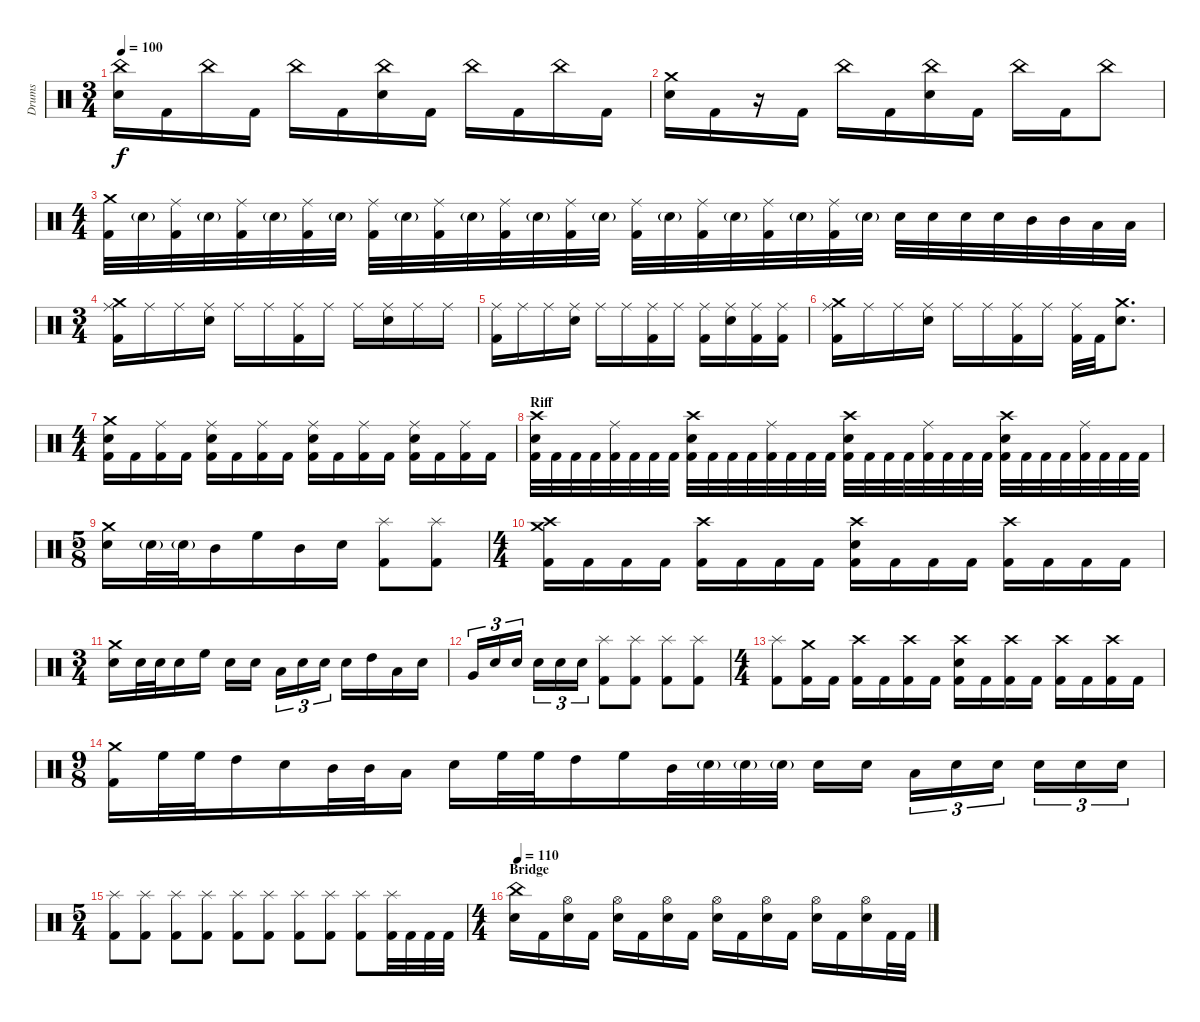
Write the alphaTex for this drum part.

\track ("Drums" "Drums") {instrument percussion}
\staff {score}
\articulation defaults
\ts (3 4)
\tempo 100
\clef neutral
\ks c
("China (hit)" "Snare (hit) 2").16{dy f} "Kick (hit) 2".16 "China (hit)".16 "Kick (hit) 2".16 "China (hit)".16 "Kick (hit) 2".16 ("China (hit)" "Snare (hit) 2").16 "Kick (hit) 2".16 "China (hit)".16 "Kick (hit) 2".16 "China (hit)".16 "Kick (hit) 2".16 |
("Crash medium (hit)" "Snare (hit) 2").16 "Kick (hit) 2".16 r.16 "Kick (hit) 2".16 "China (hit)".16 "Kick (hit) 2".16 ("China (hit)" "Snare (hit) 2").16 "Kick (hit) 2".16 "China (hit)".16 "Kick (hit) 2".16 "China (hit)".8 |
\ts (4 4)
("Crash medium (hit)" "Kick (hit) 2").32 "Snare (hit) 2"{g}.32 ("Ride (middle)" "Kick (hit) 2").32 "Snare (hit) 2"{g}.32 ("Ride (middle)" "Kick (hit) 2").32 "Snare (hit) 2"{g}.32 ("Ride (middle)" "Kick (hit) 2").32 "Snare (hit) 2"{g}.32 ("Ride (middle)" "Kick (hit) 2").32 "Snare (hit) 2"{g}.32 ("Ride (middle)" "Kick (hit) 2").32 "Snare (hit) 2"{g}.32 ("Ride (middle)" "Kick (hit) 2").32 "Snare (hit) 2"{g}.32 ("Ride (middle)" "Kick (hit) 2").32 "Snare (hit) 2"{g}.32 ("Ride (middle)" "Kick (hit) 2").32 "Snare (hit) 2"{g}.32 ("Ride (middle)" "Kick (hit) 2").32 "Snare (hit) 2"{g}.32 ("Ride (middle)" "Kick (hit) 2").32 "Snare (hit) 2"{g}.32 ("Ride (middle)" "Kick (hit) 2").32 "Snare (hit) 2"{g}.32 "Snare (hit) 2".32 "Snare (hit) 2".32 "Snare (hit) 2".32 "Snare (hit) 2".32 "Mid Tom (hit)".32 "Mid Tom (hit)".32 "Low Tom (hit)".32 "Low Tom (hit)".32 |
\ts (3 4)
("Crash medium (hit)" "Ride (middle)" "Kick (hit) 2").16 "Ride (middle)".16 "Ride (middle)".16 ("Ride (middle)" "Snare (hit) 2").16 "Ride (middle)".16 "Ride (middle)".16 ("Ride (middle)" "Kick (hit) 2").16 "Ride (middle)".16 "Ride (middle)".16 ("Ride (middle)" "Snare (hit) 2").16 "Ride (middle)".16 "Ride (middle)".16 |
("Ride (middle)" "Kick (hit) 2").16 "Ride (middle)".16 "Ride (middle)".16 ("Ride (middle)" "Snare (hit) 2").16 "Ride (middle)".16 "Ride (middle)".16 ("Ride (middle)" "Kick (hit) 2").16 "Ride (middle)".16 ("Ride (middle)" "Kick (hit) 2").16 ("Ride (middle)" "Snare (hit) 2").16 ("Ride (middle)" "Kick (hit) 2").16 ("Ride (middle)" "Kick (hit) 2").16 |
("Crash medium (hit)" "Ride (middle)" "Kick (hit) 2").16 "Ride (middle)".16 "Ride (middle)".16 ("Ride (middle)" "Snare (hit) 2").16 "Ride (middle)".16 "Ride (middle)".16 ("Ride (middle)" "Kick (hit) 2").16 "Ride (middle)".16 ("Ride (middle)" "Kick (hit) 2").32 "Kick (hit) 2".32 ("Crash medium (hit)" "Snare (hit) 2").8{d} |
\ts (4 4)
("Crash medium (hit)" "Snare (hit) 2" "Kick (hit) 2").16 "Kick (hit) 2".16 ("Ride (middle)" "Kick (hit) 2").16 "Kick (hit) 2".16 ("Ride (middle)" "Snare (hit) 2" "Kick (hit) 2").16 "Kick (hit) 2".16 ("Ride (middle)" "Kick (hit) 2").16 "Kick (hit) 2".16 ("Ride (middle)" "Snare (hit) 2" "Kick (hit) 2").16 "Kick (hit) 2".16 ("Ride (middle)" "Kick (hit) 2").16 "Kick (hit) 2".16 ("Ride (middle)" "Snare (hit) 2" "Kick (hit) 2").16 "Kick (hit) 2".16 ("Ride (middle)" "Kick (hit) 2").16 "Kick (hit) 2".16 |
\section ("" "Riff")
("Crash high (hit)" "Snare (hit) 2" "Kick (hit) 2").32 "Kick (hit) 2".32 "Kick (hit) 2".32 "Kick (hit) 2".32 ("Ride (middle)" "Kick (hit) 2").32 "Kick (hit) 2".32 "Kick (hit) 2".32 "Kick (hit) 2".32 ("Crash high (hit)" "Snare (hit) 2" "Kick (hit) 2").32 "Kick (hit) 2".32 "Kick (hit) 2".32 "Kick (hit) 2".32 ("Ride (middle)" "Kick (hit) 2").32 "Kick (hit) 2".32 "Kick (hit) 2".32 "Kick (hit) 2".32 ("Crash high (hit)" "Snare (hit) 2" "Kick (hit) 2").32 "Kick (hit) 2".32 "Kick (hit) 2".32 "Kick (hit) 2".32 ("Ride (middle)" "Kick (hit) 2").32 "Kick (hit) 2".32 "Kick (hit) 2".32 "Kick (hit) 2".32 ("Crash high (hit)" "Snare (hit) 2" "Kick (hit) 2").32 "Kick (hit) 2".32 "Kick (hit) 2".32 "Kick (hit) 2".32 ("Ride (middle)" "Kick (hit) 2").32 "Kick (hit) 2".32 "Kick (hit) 2".32 "Kick (hit) 2".32 |
\ts (5 8)
("Crash medium (hit)" "Snare (hit) 2").16 "Snare (hit) 2"{g}.32 "Snare (hit) 2"{g}.32 "Mid Tom (hit)".16 "High Floor Tom (hit)".16 "Mid Tom (hit)".16 "Snare (hit) 2".16 ("Splash (hit)" "Kick (hit) 2").8 ("Splash (hit)" "Kick (hit) 2").8 |
\ts (4 4)
("Crash high (hit)" "Crash medium (hit)" "Kick (hit) 2").16 "Kick (hit) 2".16 "Kick (hit) 2".16 "Kick (hit) 2".16 ("Crash high (hit)" "Kick (hit) 2").16 "Kick (hit) 2".16 "Kick (hit) 2".16 "Kick (hit) 2".16 ("Crash high (hit)" "Snare (hit) 2" "Kick (hit) 2").16 "Kick (hit) 2".16 "Kick (hit) 2".16 "Kick (hit) 2".16 ("Crash high (hit)" "Kick (hit) 2").16 "Kick (hit) 2".16 "Kick (hit) 2".16 "Kick (hit) 2".16 |
\ts (3 4)
("Crash medium (hit)" "Snare (hit) 2").16 "Snare (hit) 2".32 "Snare (hit) 2".32 "Snare (hit) 2".16 "High Floor Tom (hit)".16 "Snare (hit) 2".16 "Snare (hit) 2".16 "Low Tom (hit)".16{tu (3 2)} "Snare (hit) 2".16{tu (3 2)} "Snare (hit) 2".16{tu (3 2)} "Snare (hit) 2".16 "High Tom (hit)".16 "Low Tom (hit)".16 "Snare (hit) 2".16 |
"Very Low Tom (hit)".16{tu (3 2)} "Snare (hit) 2".16{tu (3 2)} "Snare (hit) 2".16{tu (3 2)} "Snare (hit) 2".16{tu (3 2)} "Snare (hit) 2".16{tu (3 2)} "Snare (hit) 2".16{tu (3 2)} ("Splash (hit)" "Kick (hit) 2").8 ("Splash (hit)" "Kick (hit) 2").8 ("Splash (hit)" "Kick (hit) 2").8 ("Splash (hit)" "Kick (hit) 2").8 |
\ts (4 4)
("Splash (hit)" "Kick (hit) 2").8 ("Crash medium (hit)" "Kick (hit) 2").16 "Kick (hit) 2".16 ("Crash high (hit)" "Kick (hit) 2").16 "Kick (hit) 2".16 ("Crash high (hit)" "Kick (hit) 2").16 "Kick (hit) 2".16 ("Crash high (hit)" "Snare (hit) 2" "Kick (hit) 2").16 "Kick (hit) 2".16 ("Crash high (hit)" "Kick (hit) 2").16 "Kick (hit) 2".16 ("Crash high (hit)" "Kick (hit) 2").16 "Kick (hit) 2".16 ("Crash high (hit)" "Kick (hit) 2").16 "Kick (hit) 2".16 |
\ts (9 8)
("Crash medium (hit)" "Kick (hit) 2").16 "High Floor Tom (hit)".32 "High Floor Tom (hit)".32 "High Tom (hit)".16 "Snare (hit) 2".16 "Mid Tom (hit)".32 "Mid Tom (hit)".32 "Low Tom (hit)".16 "Snare (hit) 2".16 "High Floor Tom (hit)".32 "High Floor Tom (hit)".32 "High Tom (hit)".16 "High Floor Tom (hit)".16 "Mid Tom (hit)".32 "Snare (hit) 2"{g}.32 "Snare (hit) 2"{g}.32 "Snare (hit) 2"{g}.32 "Snare (hit) 2".16 "Snare (hit) 2".16 "Low Tom (hit)".16{tu (3 2)} "Snare (hit) 2".16{tu (3 2)} "Snare (hit) 2".16{tu (3 2)} "Snare (hit) 2".16{tu (3 2)} "Snare (hit) 2".16{tu (3 2)} "Snare (hit) 2".16{tu (3 2)} |
\ts (5 4)
("Splash (hit)" "Kick (hit) 2").8 ("Splash (hit)" "Kick (hit) 2").8 ("Splash (hit)" "Kick (hit) 2").8 ("Splash (hit)" "Kick (hit) 2").8 ("Splash (hit)" "Kick (hit) 2").8 ("Splash (hit)" "Kick (hit) 2").8 ("Splash (hit)" "Kick (hit) 2").8 ("Splash (hit)" "Kick (hit) 2").8 ("Splash (hit)" "Kick (hit) 2").8 ("Splash (hit)" "Kick (hit) 2").32 "Kick (hit) 2".32 "Kick (hit) 2".32 "Kick (hit) 2".32 |
\ts (4 4)
\section ("" "Bridge")
\tempo 110
("China (hit)" "Snare (hit) 2").16 "Kick (hit) 2".16 ("Hi-Hat (open)" "Snare (hit) 2").16 "Kick (hit) 2".16 ("Hi-Hat (open)" "Snare (hit) 2").16 "Kick (hit) 2".16 ("Hi-Hat (open)" "Snare (hit) 2").16 "Kick (hit) 2".16 ("Hi-Hat (open)" "Snare (hit) 2").16 "Kick (hit) 2".16 ("Hi-Hat (open)" "Snare (hit) 2").16 "Kick (hit) 2".16 ("Hi-Hat (open)" "Snare (hit) 2").16 "Kick (hit) 2".16 ("Hi-Hat (open)" "Snare (hit) 2").16 "Kick (hit) 2".32 "Kick (hit) 2".32
